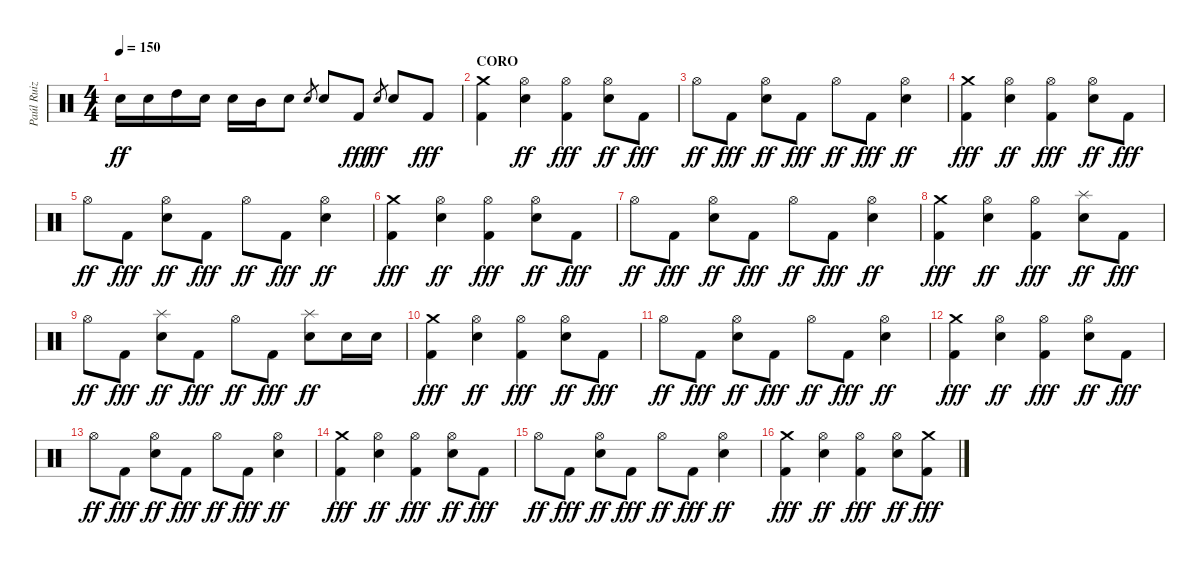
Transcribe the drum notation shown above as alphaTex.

\track ("Paúl Ruiz" "Paúl Ruiz") {instrument percussion}
\staff {score}
\articulation defaults
\ts (4 4)
\tempo 150
\clef neutral
\ks c "Snare (hit) 2".16{dy ff} "Snare (hit) 2".16 "High Tom (hit)".16 "Snare (hit) 2".16 "Snare (hit) 2".16 "Mid Tom (hit)".16 "Snare (hit) 2".8 "Snare (hit) 2".8{gr} "Snare (hit) 2".8 "Kick (hit) 2".8{dy fff} "Snare (hit) 2".8{gr dy ff} "Snare (hit) 2".8 "Kick (hit) 2".8{dy fff}
|
\section ("" "CORO")
("Crash medium (hit)" "Kick (hit) 2").4 ("Hi-Hat (open)" "Snare (hit) 2").4{dy ff} ("Hi-Hat (open)" "Kick (hit) 2").4{dy fff} ("Hi-Hat (open)" "Snare (hit) 2").8{dy ff} "Kick (hit) 2".8{dy fff} |
"Hi-Hat (open)".8{dy ff} "Kick (hit) 2".8{dy fff} ("Hi-Hat (open)" "Snare (hit) 2").8{dy ff} "Kick (hit) 2".8{dy fff} "Hi-Hat (open)".8{dy ff} "Kick (hit) 2".8{dy fff} ("Hi-Hat (open)" "Snare (hit) 2").4{dy ff} |
("Crash medium (hit)" "Kick (hit) 2").4{dy fff} ("Hi-Hat (open)" "Snare (hit) 2").4{dy ff} ("Hi-Hat (open)" "Kick (hit) 2").4{dy fff} ("Hi-Hat (open)" "Snare (hit) 2").8{dy ff} "Kick (hit) 2".8{dy fff} |
"Hi-Hat (open)".8{dy ff} "Kick (hit) 2".8{dy fff} ("Hi-Hat (open)" "Snare (hit) 2").8{dy ff} "Kick (hit) 2".8{dy fff} "Hi-Hat (open)".8{dy ff} "Kick (hit) 2".8{dy fff} ("Hi-Hat (open)" "Snare (hit) 2").4{dy ff} |
("Crash medium (hit)" "Kick (hit) 2").4{dy fff} ("Hi-Hat (open)" "Snare (hit) 2").4{dy ff} ("Hi-Hat (open)" "Kick (hit) 2").4{dy fff} ("Hi-Hat (open)" "Snare (hit) 2").8{dy ff} "Kick (hit) 2".8{dy fff} |
"Hi-Hat (open)".8{dy ff} "Kick (hit) 2".8{dy fff} ("Hi-Hat (open)" "Snare (hit) 2").8{dy ff} "Kick (hit) 2".8{dy fff} "Hi-Hat (open)".8{dy ff} "Kick (hit) 2".8{dy fff} ("Hi-Hat (open)" "Snare (hit) 2").4{dy ff} |
("Crash medium (hit)" "Kick (hit) 2").4{dy fff} ("Hi-Hat (open)" "Snare (hit) 2").4{dy ff} ("Hi-Hat (open)" "Kick (hit) 2").4{dy fff} ("Splash (hit)" "Snare (hit) 2").8{dy ff} "Kick (hit) 2".8{dy fff} |
"Hi-Hat (open)".8{dy ff} "Kick (hit) 2".8{dy fff} ("Splash (hit)" "Snare (hit) 2").8{dy ff} "Kick (hit) 2".8{dy fff} "Hi-Hat (open)".8{dy ff} "Kick (hit) 2".8{dy fff} ("Splash (hit)" "Snare (hit) 2").8{dy ff} "Snare (hit) 2".16 "Snare (hit) 2".16 |
("Crash medium (hit)" "Kick (hit) 2").4{dy fff} ("Hi-Hat (open)" "Snare (hit) 2").4{dy ff} ("Hi-Hat (open)" "Kick (hit) 2").4{dy fff} ("Hi-Hat (open)" "Snare (hit) 2").8{dy ff} "Kick (hit) 2".8{dy fff} |
"Hi-Hat (open)".8{dy ff} "Kick (hit) 2".8{dy fff} ("Hi-Hat (open)" "Snare (hit) 2").8{dy ff} "Kick (hit) 2".8{dy fff} "Hi-Hat (open)".8{dy ff} "Kick (hit) 2".8{dy fff} ("Hi-Hat (open)" "Snare (hit) 2").4{dy ff} |
("Crash medium (hit)" "Kick (hit) 2").4{dy fff} ("Hi-Hat (open)" "Snare (hit) 2").4{dy ff} ("Hi-Hat (open)" "Kick (hit) 2").4{dy fff} ("Hi-Hat (open)" "Snare (hit) 2").8{dy ff} "Kick (hit) 2".8{dy fff} |
"Hi-Hat (open)".8{dy ff} "Kick (hit) 2".8{dy fff} ("Hi-Hat (open)" "Snare (hit) 2").8{dy ff} "Kick (hit) 2".8{dy fff} "Hi-Hat (open)".8{dy ff} "Kick (hit) 2".8{dy fff} ("Hi-Hat (open)" "Snare (hit) 2").4{dy ff} |
("Crash medium (hit)" "Kick (hit) 2").4{dy fff} ("Hi-Hat (open)" "Snare (hit) 2").4{dy ff} ("Hi-Hat (open)" "Kick (hit) 2").4{dy fff} ("Hi-Hat (open)" "Snare (hit) 2").8{dy ff} "Kick (hit) 2".8{dy fff} |
"Hi-Hat (open)".8{dy ff} "Kick (hit) 2".8{dy fff} ("Hi-Hat (open)" "Snare (hit) 2").8{dy ff} "Kick (hit) 2".8{dy fff} "Hi-Hat (open)".8{dy ff} "Kick (hit) 2".8{dy fff} ("Hi-Hat (open)" "Snare (hit) 2").4{dy ff} |
("Crash medium (hit)" "Kick (hit) 2").4{dy fff} ("Hi-Hat (open)" "Snare (hit) 2").4{dy ff} ("Hi-Hat (open)" "Kick (hit) 2").4{dy fff} ("Hi-Hat (open)" "Snare (hit) 2").8{dy ff} ("Crash medium (hit)" "Kick (hit) 2").8{dy fff}
